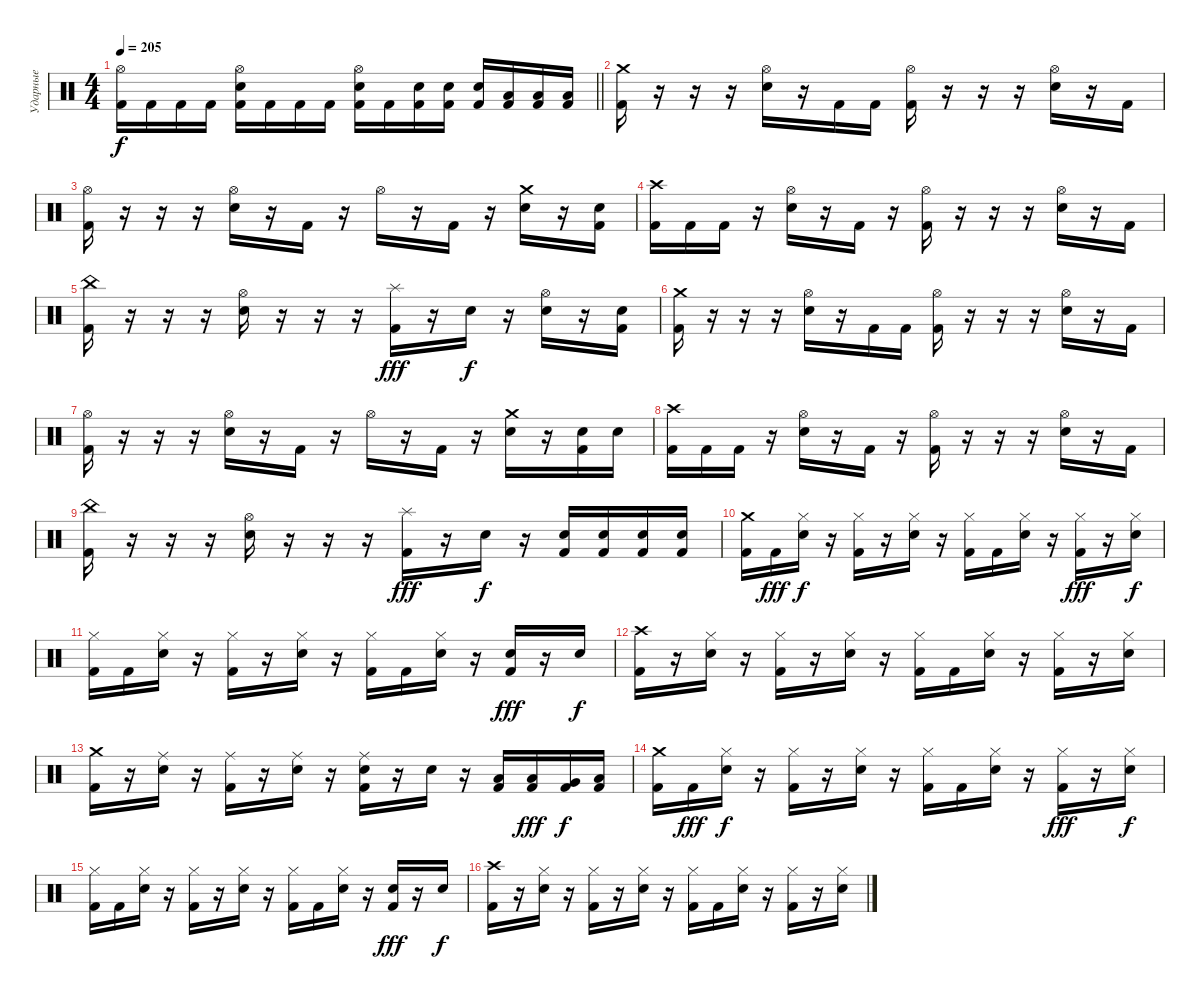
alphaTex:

\track ("Ударные" "Ударные") {instrument percussion}
\staff {score}
\articulation defaults
\ts (4 4)
\tempo 205
\clef neutral
\barLineRight lightlight
\ks c
("Hi-Hat (open)" "Kick (hit) 2").16{dy f} "Kick (hit) 2".16 "Kick (hit) 2".16 "Kick (hit) 2".16 ("Hi-Hat (open)" "Snare (hit) 2" "Kick (hit) 2").16 "Kick (hit) 2".16 "Kick (hit) 2".16 "Kick (hit) 2".16 ("Hi-Hat (open)" "Snare (hit) 2" "Kick (hit) 2").16 "Kick (hit) 2".16 ("Snare (hit) 2" "Kick (hit) 2").16 ("Snare (hit) 2" "Kick (hit) 2").16 ("Snare (hit) 2" "Kick (hit) 2").16 ("Low Tom (hit)" "Kick (hit) 2").16 ("Low Tom (hit)" "Kick (hit) 2").16 ("Low Tom (hit)" "Kick (hit) 2").16 |
("Crash medium (hit)" "Kick (hit) 2").16 r.16 r.16 r.16 ("Hi-Hat (open)" "Snare (hit) 2").16 r.16 "Kick (hit) 2".16 "Kick (hit) 2".16 ("Hi-Hat (open)" "Kick (hit) 2").16 r.16 r.16 r.16 ("Hi-Hat (open)" "Snare (hit) 2").16 r.16 "Kick (hit) 2".16 |
("Hi-Hat (open)" "Kick (hit) 2").16 r.16 r.16 r.16 ("Hi-Hat (open)" "Snare (hit) 2").16 r.16 "Kick (hit) 2".16 r.16 "Hi-Hat (open)".16 r.16 "Kick (hit) 2".16 r.16 ("Crash medium (hit)" "Snare (hit) 2").16 r.16 ("Snare (hit) 2" "Kick (hit) 2").16 |
("Crash high (hit)" "Kick (hit) 2").16 "Kick (hit) 2".16 "Kick (hit) 2".16 r.16 ("Hi-Hat (open)" "Snare (hit) 2").16 r.16 "Kick (hit) 2".16 r.16 ("Hi-Hat (open)" "Kick (hit) 2").16 r.16 r.16 r.16 ("Hi-Hat (open)" "Snare (hit) 2").16 r.16 "Kick (hit) 2".16 |
("China (hit)" "Kick (hit) 2").16 r.16 r.16 r.16 ("Hi-Hat (open)" "Snare (hit) 2").16 r.16 r.16 r.16 ("Splash (hit)" "Kick (hit) 2").16{dy fff} r.16 "Snare (hit) 2".16{dy f} r.16 ("Hi-Hat (open)" "Snare (hit) 2").16 r.16 ("Snare (hit) 2" "Kick (hit) 2").16 |
("Crash medium (hit)" "Kick (hit) 2").16 r.16 r.16 r.16 ("Hi-Hat (open)" "Snare (hit) 2").16 r.16 "Kick (hit) 2".16 "Kick (hit) 2".16 ("Hi-Hat (open)" "Kick (hit) 2").16 r.16 r.16 r.16 ("Hi-Hat (open)" "Snare (hit) 2").16 r.16 "Kick (hit) 2".16 |
("Hi-Hat (open)" "Kick (hit) 2").16 r.16 r.16 r.16 ("Hi-Hat (open)" "Snare (hit) 2").16 r.16 "Kick (hit) 2".16 r.16 "Hi-Hat (open)".16 r.16 "Kick (hit) 2".16 r.16 ("Crash medium (hit)" "Snare (hit) 2").16 r.16 ("Snare (hit) 2" "Kick (hit) 2").16 "Snare (hit) 2".16 |
("Crash high (hit)" "Kick (hit) 2").16 "Kick (hit) 2".16 "Kick (hit) 2".16 r.16 ("Hi-Hat (open)" "Snare (hit) 2").16 r.16 "Kick (hit) 2".16 r.16 ("Hi-Hat (open)" "Kick (hit) 2").16 r.16 r.16 r.16 ("Hi-Hat (open)" "Snare (hit) 2").16 r.16 "Kick (hit) 2".16 |
("China (hit)" "Kick (hit) 2").16 r.16 r.16 r.16 ("Hi-Hat (open)" "Snare (hit) 2").16 r.16 r.16 r.16 ("Splash (hit)" "Kick (hit) 2").16{dy fff} r.16 "Snare (hit) 2".16{dy f} r.16 ("Snare (hit) 2" "Kick (hit) 2").16 ("Snare (hit) 2" "Kick (hit) 2").16 ("Snare (hit) 2" "Kick (hit) 2").16 ("Snare (hit) 2" "Kick (hit) 2").16 |
("Crash medium (hit)" "Kick (hit) 2").16 "Kick (hit) 2".16{dy fff} ("Hi-Hat (closed)" "Snare (hit) 2").16{dy f} r.16 ("Hi-Hat (closed)" "Kick (hit) 2").16 r.16 ("Hi-Hat (closed)" "Snare (hit) 2").16 r.16 ("Hi-Hat (closed)" "Kick (hit) 2").16 "Kick (hit) 2".16 ("Hi-Hat (closed)" "Snare (hit) 2").16 r.16 ("Hi-Hat (closed)" "Kick (hit) 2").16{dy fff} r.16 ("Hi-Hat (closed)" "Snare (hit) 2").16{dy f} |
("Hi-Hat (closed)" "Kick (hit) 2").16 "Kick (hit) 2".16 ("Hi-Hat (closed)" "Snare (hit) 2").16 r.16 ("Hi-Hat (closed)" "Kick (hit) 2").16 r.16 ("Hi-Hat (closed)" "Snare (hit) 2").16 r.16 ("Hi-Hat (closed)" "Kick (hit) 2").16 "Kick (hit) 2".16 ("Hi-Hat (closed)" "Snare (hit) 2").16 r.16 ("Snare (hit) 2" "Kick (hit) 2").16{dy fff} r.16 "Snare (hit) 2".16{dy f} |
("Crash high (hit)" "Kick (hit) 2").16 r.16 ("Hi-Hat (closed)" "Snare (hit) 2").16 r.16 ("Hi-Hat (closed)" "Kick (hit) 2").16 r.16 ("Hi-Hat (closed)" "Snare (hit) 2").16 r.16 ("Hi-Hat (closed)" "Kick (hit) 2").16 "Kick (hit) 2".16 ("Hi-Hat (closed)" "Snare (hit) 2").16 r.16 ("Hi-Hat (closed)" "Kick (hit) 2").16 r.16 ("Hi-Hat (closed)" "Snare (hit) 2").16 |
("Crash medium (hit)" "Kick (hit) 2").16 r.16 ("Ride (middle)" "Snare (hit) 2").16 r.16 ("Ride (middle)" "Kick (hit) 2").16 r.16 ("Ride (middle)" "Snare (hit) 2").16 r.16 ("Ride (middle)" "Snare (hit) 2" "Kick (hit) 2").16 r.16 "Snare (hit) 2".16 r.16 ("Low Tom (hit)" "Kick (hit) 2").16 ("Low Tom (hit)" "Kick (hit) 2").16{dy fff} ("Very Low Tom (hit)" "Kick (hit) 2").16{dy f} ("Low Floor Tom (hit)" "Kick (hit) 2").16 |
("Crash medium (hit)" "Kick (hit) 2").16 "Kick (hit) 2".16{dy fff} ("Hi-Hat (closed)" "Snare (hit) 2").16{dy f} r.16 ("Hi-Hat (closed)" "Kick (hit) 2").16 r.16 ("Hi-Hat (closed)" "Snare (hit) 2").16 r.16 ("Hi-Hat (closed)" "Kick (hit) 2").16 "Kick (hit) 2".16 ("Hi-Hat (closed)" "Snare (hit) 2").16 r.16 ("Hi-Hat (closed)" "Kick (hit) 2").16{dy fff} r.16 ("Hi-Hat (closed)" "Snare (hit) 2").16{dy f} |
("Hi-Hat (closed)" "Kick (hit) 2").16 "Kick (hit) 2".16 ("Hi-Hat (closed)" "Snare (hit) 2").16 r.16 ("Hi-Hat (closed)" "Kick (hit) 2").16 r.16 ("Hi-Hat (closed)" "Snare (hit) 2").16 r.16 ("Hi-Hat (closed)" "Kick (hit) 2").16 "Kick (hit) 2".16 ("Hi-Hat (closed)" "Snare (hit) 2").16 r.16 ("Snare (hit) 2" "Kick (hit) 2").16{dy fff} r.16 "Snare (hit) 2".16{dy f} |
("Crash high (hit)" "Kick (hit) 2").16 r.16 ("Hi-Hat (closed)" "Snare (hit) 2").16 r.16 ("Hi-Hat (closed)" "Kick (hit) 2").16 r.16 ("Hi-Hat (closed)" "Snare (hit) 2").16 r.16 ("Hi-Hat (closed)" "Kick (hit) 2").16 "Kick (hit) 2".16 ("Hi-Hat (closed)" "Snare (hit) 2").16 r.16 ("Hi-Hat (closed)" "Kick (hit) 2").16 r.16 ("Hi-Hat (closed)" "Snare (hit) 2").16
